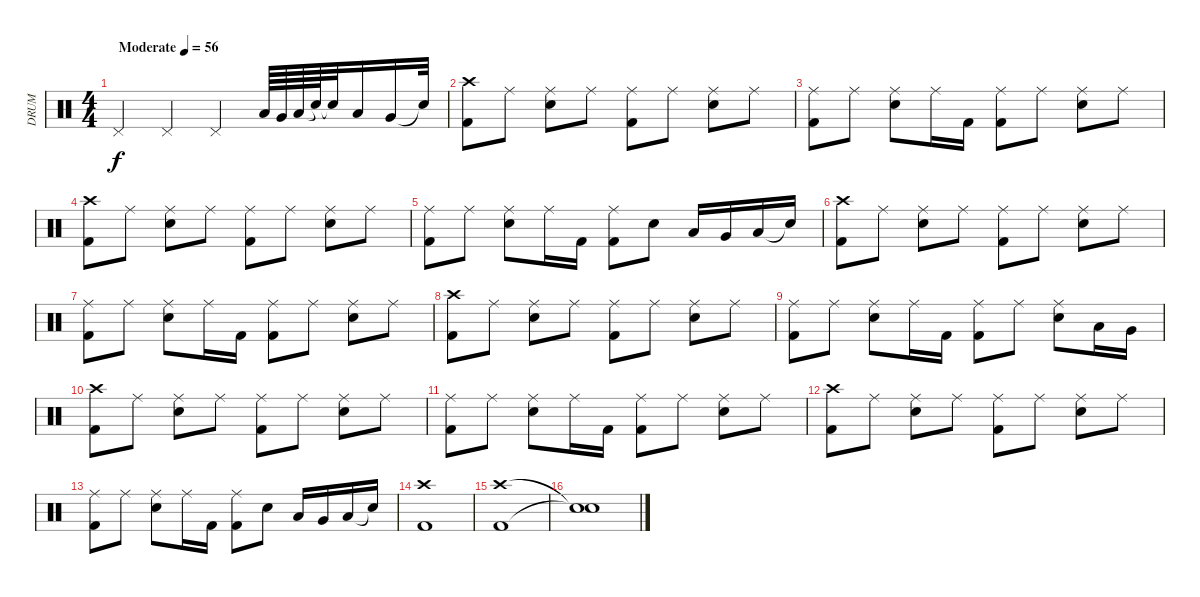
\track ("DRUM" "DRUM") {instrument percussion}
\staff {score}
\articulation defaults
\ts (4 4)
\tempo (56 "Moderate")
\clef neutral
\ks c "Pedal Hi-Hat (hit)".4{dy f} "Pedal Hi-Hat (hit)".4 "Pedal Hi-Hat (hit)".4 "Low Tom (hit)".64 "Very Low Tom (hit)".64 "Low Floor Tom (hit)".64 "Snare (hit)"{t}.64 "Snare (hit)"{t}.32 "Low Tom (hit)".16 "Very Low Tom (hit)".16 "Snare (hit)"{t}.32
|
("Kick (hit) 2" "Crash high (hit)").8 "Ride (middle)".8 ("Electric Snare (hit)" "Ride (middle)").8 "Ride (middle)".8 ("Kick (hit) 2" "Ride (middle)").8 "Ride (middle)".8 ("Electric Snare (hit)" "Ride (middle)").8 "Ride (middle)".8 |
("Kick (hit) 2" "Ride (middle)").8 "Ride (middle)".8 ("Electric Snare (hit)" "Ride (middle)").8 "Ride (middle)".16 "Kick (hit) 2".16 ("Kick (hit) 2" "Ride (middle)").8 "Ride (middle)".8 ("Electric Snare (hit)" "Ride (middle)").8 "Ride (middle)".8 |
("Kick (hit) 2" "Crash high (hit)").8 "Ride (middle)".8 ("Electric Snare (hit)" "Ride (middle)").8 "Ride (middle)".8 ("Kick (hit) 2" "Ride (middle)").8 "Ride (middle)".8 ("Electric Snare (hit)" "Ride (middle)").8 "Ride (middle)".8 |
("Kick (hit) 2" "Ride (middle)").8 "Ride (middle)".8 ("Electric Snare (hit)" "Ride (middle)").8 "Ride (middle)".16 "Kick (hit) 2".16 ("Kick (hit) 2" "Ride (middle)").8 "Electric Snare (hit)".8 "Low Tom (hit)".16 "Very Low Tom (hit)".16 "Low Floor Tom (hit)".16 "Snare (hit)"{t}.16 |
("Kick (hit) 2" "Crash high (hit)").8 "Ride (middle)".8 ("Electric Snare (hit)" "Ride (middle)").8 "Ride (middle)".8 ("Kick (hit) 2" "Ride (middle)").8 "Ride (middle)".8 ("Electric Snare (hit)" "Ride (middle)").8 "Ride (middle)".8 |
("Kick (hit) 2" "Ride (middle)").8 "Ride (middle)".8 ("Electric Snare (hit)" "Ride (middle)").8 "Ride (middle)".16 "Kick (hit) 2".16 ("Kick (hit) 2" "Ride (middle)").8 "Ride (middle)".8 ("Electric Snare (hit)" "Ride (middle)").8 "Ride (middle)".8 |
("Kick (hit) 2" "Crash high (hit)").8 "Ride (middle)".8 ("Electric Snare (hit)" "Ride (middle)").8 "Ride (middle)".8 ("Kick (hit) 2" "Ride (middle)").8 "Ride (middle)".8 ("Electric Snare (hit)" "Ride (middle)").8 "Ride (middle)".8 |
("Kick (hit) 2" "Ride (middle)").8 "Ride (middle)".8 ("Electric Snare (hit)" "Ride (middle)").8 "Ride (middle)".16 "Kick (hit) 2".16 ("Kick (hit) 2" "Ride (middle)").8 "Ride (middle)".8 ("Electric Snare (hit)" "Ride (middle)").8 "Low Tom (hit)".16 "Very Low Tom (hit)".16 |
("Kick (hit) 2" "Crash high (hit)").8 "Ride (middle)".8 ("Electric Snare (hit)" "Ride (middle)").8 "Ride (middle)".8 ("Kick (hit) 2" "Ride (middle)").8 "Ride (middle)".8 ("Electric Snare (hit)" "Ride (middle)").8 "Ride (middle)".8 |
("Kick (hit) 2" "Ride (middle)").8 "Ride (middle)".8 ("Electric Snare (hit)" "Ride (middle)").8 "Ride (middle)".16 "Kick (hit) 2".16 ("Kick (hit) 2" "Ride (middle)").8 "Ride (middle)".8 ("Electric Snare (hit)" "Ride (middle)").8 "Ride (middle)".8 |
("Kick (hit) 2" "Crash high (hit)").8 "Ride (middle)".8 ("Electric Snare (hit)" "Ride (middle)").8 "Ride (middle)".8 ("Kick (hit) 2" "Ride (middle)").8 "Ride (middle)".8 ("Electric Snare (hit)" "Ride (middle)").8 "Ride (middle)".8 |
("Kick (hit) 2" "Ride (middle)").8 "Ride (middle)".8 ("Electric Snare (hit)" "Ride (middle)").8 "Ride (middle)".16 "Kick (hit) 2".16 ("Kick (hit) 2" "Ride (middle)").8 "Electric Snare (hit)".8 "Low Tom (hit)".16 "Very Low Tom (hit)".16 "Low Floor Tom (hit)".16 "Snare (hit)"{t}.16 |
("Kick (hit) 2" "Crash high (hit)").1 |
("Kick (hit) 2" "Crash high (hit)").1 |
("Snare (hit)"{t} "Snare (hit)"{t}).1
